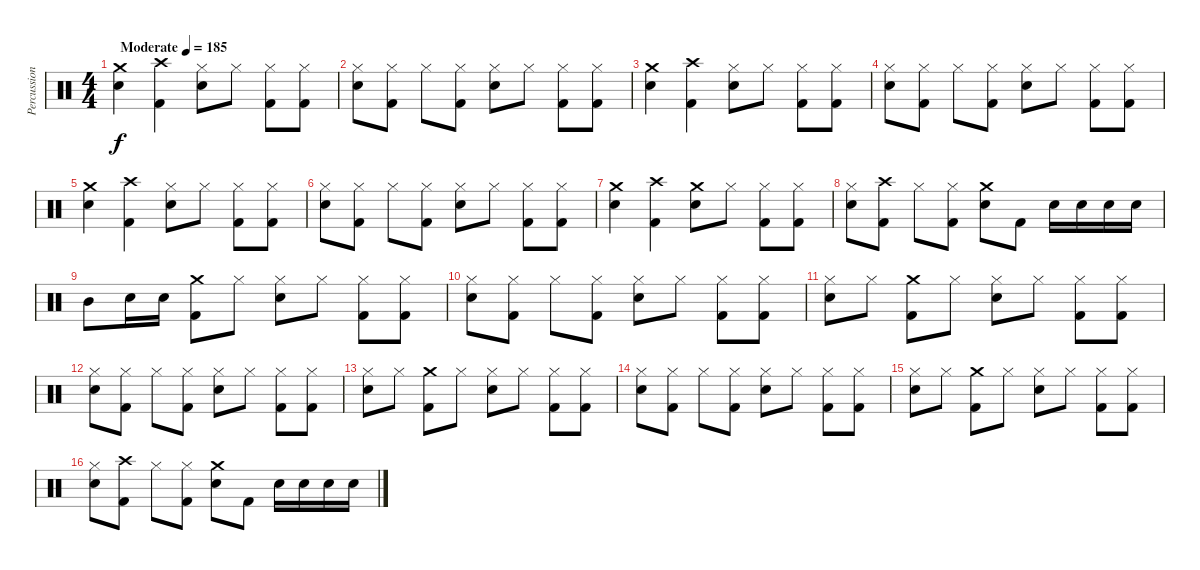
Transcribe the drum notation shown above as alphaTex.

\track ("Percussion" "Percussion") {instrument percussion}
\staff {score}
\articulation defaults
\ts (4 4)
\tempo (185 "Moderate")
\clef neutral
\ks c
("Crash medium (hit)" "Electric Snare (hit)").4{dy f} ("Crash high (hit)" "Kick (hit) 2").4 ("Hi-Hat (closed)" "Electric Snare (hit)").8 "Hi-Hat (closed)".8 ("Hi-Hat (closed)" "Kick (hit) 2").8 ("Hi-Hat (closed)" "Kick (hit) 2").8 |
("Hi-Hat (closed)" "Electric Snare (hit)").8 ("Hi-Hat (closed)" "Kick (hit) 2").8 "Hi-Hat (closed)".8 ("Hi-Hat (closed)" "Kick (hit) 2").8 ("Hi-Hat (closed)" "Electric Snare (hit)").8 "Hi-Hat (closed)".8 ("Hi-Hat (closed)" "Kick (hit) 2").8 ("Hi-Hat (closed)" "Kick (hit) 2").8 |
("Crash medium (hit)" "Electric Snare (hit)").4 ("Crash high (hit)" "Kick (hit) 2").4 ("Hi-Hat (closed)" "Electric Snare (hit)").8 "Hi-Hat (closed)".8 ("Hi-Hat (closed)" "Kick (hit) 2").8 ("Hi-Hat (closed)" "Kick (hit) 2").8 |
("Hi-Hat (closed)" "Electric Snare (hit)").8 ("Hi-Hat (closed)" "Kick (hit) 2").8 "Hi-Hat (closed)".8 ("Hi-Hat (closed)" "Kick (hit) 2").8 ("Hi-Hat (closed)" "Electric Snare (hit)").8 "Hi-Hat (closed)".8 ("Hi-Hat (closed)" "Kick (hit) 2").8 ("Hi-Hat (closed)" "Kick (hit) 2").8 |
("Crash medium (hit)" "Electric Snare (hit)").4 ("Crash high (hit)" "Kick (hit) 2").4 ("Hi-Hat (closed)" "Electric Snare (hit)").8 "Hi-Hat (closed)".8 ("Hi-Hat (closed)" "Kick (hit) 2").8 ("Hi-Hat (closed)" "Kick (hit) 2").8 |
("Hi-Hat (closed)" "Electric Snare (hit)").8 ("Hi-Hat (closed)" "Kick (hit) 2").8 "Hi-Hat (closed)".8 ("Hi-Hat (closed)" "Kick (hit) 2").8 ("Hi-Hat (closed)" "Electric Snare (hit)").8 "Hi-Hat (closed)".8 ("Hi-Hat (closed)" "Kick (hit) 2").8 ("Hi-Hat (closed)" "Kick (hit) 2").8 |
("Crash medium (hit)" "Electric Snare (hit)").4 ("Crash high (hit)" "Kick (hit) 2").4 ("Crash medium (hit)" "Electric Snare (hit)").8 "Hi-Hat (closed)".8 ("Hi-Hat (closed)" "Kick (hit) 2").8 ("Hi-Hat (closed)" "Kick (hit) 2").8 |
("Hi-Hat (closed)" "Electric Snare (hit)").8 ("Crash high (hit)" "Kick (hit) 2").8 "Hi-Hat (closed)".8 ("Hi-Hat (closed)" "Kick (hit) 2").8 ("Crash medium (hit)" "Electric Snare (hit)").8 "Kick (hit) 2".8 "Electric Snare (hit)".16 "Electric Snare (hit)".16 "Electric Snare (hit)".16 "Electric Snare (hit)".16 |
"Mid Tom (hit)".8 "Electric Snare (hit)".16 "Electric Snare (hit)".16 ("Crash medium (hit)" "Kick (hit) 2").8 "Hi-Hat (closed)".8 ("Hi-Hat (closed)" "Electric Snare (hit)").8 "Hi-Hat (closed)".8 ("Hi-Hat (closed)" "Kick (hit) 2").8 ("Hi-Hat (closed)" "Kick (hit) 2").8 |
("Hi-Hat (closed)" "Electric Snare (hit)").8 ("Hi-Hat (closed)" "Kick (hit) 2").8 "Hi-Hat (closed)".8 ("Hi-Hat (closed)" "Kick (hit) 2").8 ("Hi-Hat (closed)" "Electric Snare (hit)").8 "Hi-Hat (closed)".8 ("Hi-Hat (closed)" "Kick (hit) 2").8 ("Hi-Hat (closed)" "Kick (hit) 2").8 |
("Hi-Hat (closed)" "Electric Snare (hit)").8 "Hi-Hat (closed)".8 ("Crash medium (hit)" "Kick (hit) 2").8 "Hi-Hat (closed)".8 ("Hi-Hat (closed)" "Electric Snare (hit)").8 "Hi-Hat (closed)".8 ("Hi-Hat (closed)" "Kick (hit) 2").8 ("Hi-Hat (closed)" "Kick (hit) 2").8 |
("Hi-Hat (closed)" "Electric Snare (hit)").8 ("Hi-Hat (closed)" "Kick (hit) 2").8 "Hi-Hat (closed)".8 ("Hi-Hat (closed)" "Kick (hit) 2").8 ("Hi-Hat (closed)" "Electric Snare (hit)").8 "Hi-Hat (closed)".8 ("Hi-Hat (closed)" "Kick (hit) 2").8 ("Hi-Hat (closed)" "Kick (hit) 2").8 |
("Hi-Hat (closed)" "Electric Snare (hit)").8 "Hi-Hat (closed)".8 ("Crash medium (hit)" "Kick (hit) 2").8 "Hi-Hat (closed)".8 ("Hi-Hat (closed)" "Electric Snare (hit)").8 "Hi-Hat (closed)".8 ("Hi-Hat (closed)" "Kick (hit) 2").8 ("Hi-Hat (closed)" "Kick (hit) 2").8 |
("Hi-Hat (closed)" "Electric Snare (hit)").8 ("Hi-Hat (closed)" "Kick (hit) 2").8 "Hi-Hat (closed)".8 ("Hi-Hat (closed)" "Kick (hit) 2").8 ("Hi-Hat (closed)" "Electric Snare (hit)").8 "Hi-Hat (closed)".8 ("Hi-Hat (closed)" "Kick (hit) 2").8 ("Hi-Hat (closed)" "Kick (hit) 2").8 |
("Hi-Hat (closed)" "Electric Snare (hit)").8 "Hi-Hat (closed)".8 ("Crash medium (hit)" "Kick (hit) 2").8 "Hi-Hat (closed)".8 ("Hi-Hat (closed)" "Electric Snare (hit)").8 "Hi-Hat (closed)".8 ("Hi-Hat (closed)" "Kick (hit) 2").8 ("Hi-Hat (closed)" "Kick (hit) 2").8 |
("Hi-Hat (closed)" "Electric Snare (hit)").8 ("Crash high (hit)" "Kick (hit) 2").8 "Hi-Hat (closed)".8 ("Hi-Hat (closed)" "Kick (hit) 2").8 ("Crash medium (hit)" "Electric Snare (hit)").8 "Kick (hit) 2".8 "Electric Snare (hit)".16 "Electric Snare (hit)".16 "Electric Snare (hit)".16 "Electric Snare (hit)".16
